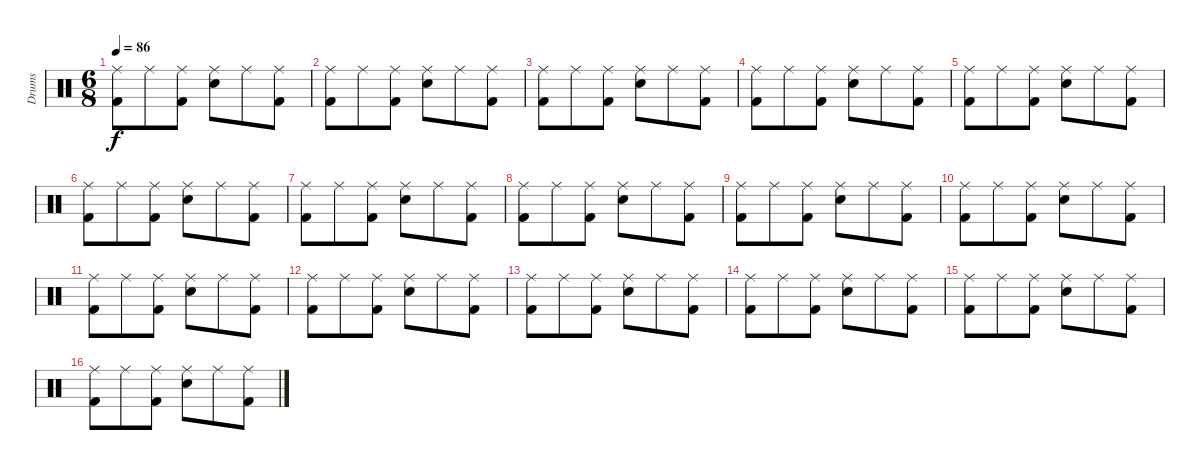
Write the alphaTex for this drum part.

\track ("Drums" "Drums") {instrument percussion}
\staff {score}
\articulation defaults
\ts (6 8)
\tempo 86
\clef neutral
\ks c
("Ride (middle)" "Kick (hit) 2").8{dy f} "Ride (middle)".8 ("Ride (middle)" "Kick (hit) 2").8 ("Ride (middle)" "Snare (hit) 2").8 "Ride (middle)".8 ("Ride (middle)" "Kick (hit) 2").8 |
("Ride (middle)" "Kick (hit) 2").8 "Ride (middle)".8 ("Ride (middle)" "Kick (hit) 2").8 ("Ride (middle)" "Snare (hit) 2").8 "Ride (middle)".8 ("Ride (middle)" "Kick (hit) 2").8 |
("Ride (middle)" "Kick (hit) 2").8 "Ride (middle)".8 ("Ride (middle)" "Kick (hit) 2").8 ("Ride (middle)" "Snare (hit) 2").8 "Ride (middle)".8 ("Ride (middle)" "Kick (hit) 2").8 |
("Ride (middle)" "Kick (hit) 2").8 "Ride (middle)".8 ("Ride (middle)" "Kick (hit) 2").8 ("Ride (middle)" "Snare (hit) 2").8 "Ride (middle)".8 ("Ride (middle)" "Kick (hit) 2").8 |
("Ride (middle)" "Kick (hit) 2").8 "Ride (middle)".8 ("Ride (middle)" "Kick (hit) 2").8 ("Ride (middle)" "Snare (hit) 2").8 "Ride (middle)".8 ("Ride (middle)" "Kick (hit) 2").8 |
("Ride (middle)" "Kick (hit) 2").8 "Ride (middle)".8 ("Ride (middle)" "Kick (hit) 2").8 ("Ride (middle)" "Snare (hit) 2").8 "Ride (middle)".8 ("Ride (middle)" "Kick (hit) 2").8 |
("Ride (middle)" "Kick (hit) 2").8 "Ride (middle)".8 ("Ride (middle)" "Kick (hit) 2").8 ("Ride (middle)" "Snare (hit) 2").8 "Ride (middle)".8 ("Ride (middle)" "Kick (hit) 2").8 |
("Ride (middle)" "Kick (hit) 2").8 "Ride (middle)".8 ("Ride (middle)" "Kick (hit) 2").8 ("Ride (middle)" "Snare (hit) 2").8 "Ride (middle)".8 ("Ride (middle)" "Kick (hit) 2").8 |
("Ride (middle)" "Kick (hit) 2").8 "Ride (middle)".8 ("Ride (middle)" "Kick (hit) 2").8 ("Ride (middle)" "Snare (hit) 2").8 "Ride (middle)".8 ("Ride (middle)" "Kick (hit) 2").8 |
("Ride (middle)" "Kick (hit) 2").8 "Ride (middle)".8 ("Ride (middle)" "Kick (hit) 2").8 ("Ride (middle)" "Snare (hit) 2").8 "Ride (middle)".8 ("Ride (middle)" "Kick (hit) 2").8 |
("Ride (middle)" "Kick (hit) 2").8 "Ride (middle)".8 ("Ride (middle)" "Kick (hit) 2").8 ("Ride (middle)" "Snare (hit) 2").8 "Ride (middle)".8 ("Ride (middle)" "Kick (hit) 2").8 |
("Ride (middle)" "Kick (hit) 2").8 "Ride (middle)".8 ("Ride (middle)" "Kick (hit) 2").8 ("Ride (middle)" "Snare (hit) 2").8 "Ride (middle)".8 ("Ride (middle)" "Kick (hit) 2").8 |
("Ride (middle)" "Kick (hit) 2").8 "Ride (middle)".8 ("Ride (middle)" "Kick (hit) 2").8 ("Ride (middle)" "Snare (hit) 2").8 "Ride (middle)".8 ("Ride (middle)" "Kick (hit) 2").8 |
("Ride (middle)" "Kick (hit) 2").8 "Ride (middle)".8 ("Ride (middle)" "Kick (hit) 2").8 ("Ride (middle)" "Snare (hit) 2").8 "Ride (middle)".8 ("Ride (middle)" "Kick (hit) 2").8 |
("Ride (middle)" "Kick (hit) 2").8 "Ride (middle)".8 ("Ride (middle)" "Kick (hit) 2").8 ("Ride (middle)" "Snare (hit) 2").8 "Ride (middle)".8 ("Ride (middle)" "Kick (hit) 2").8 |
("Ride (middle)" "Kick (hit) 2").8 "Ride (middle)".8 ("Ride (middle)" "Kick (hit) 2").8 ("Ride (middle)" "Snare (hit) 2").8 "Ride (middle)".8 ("Ride (middle)" "Kick (hit) 2").8
